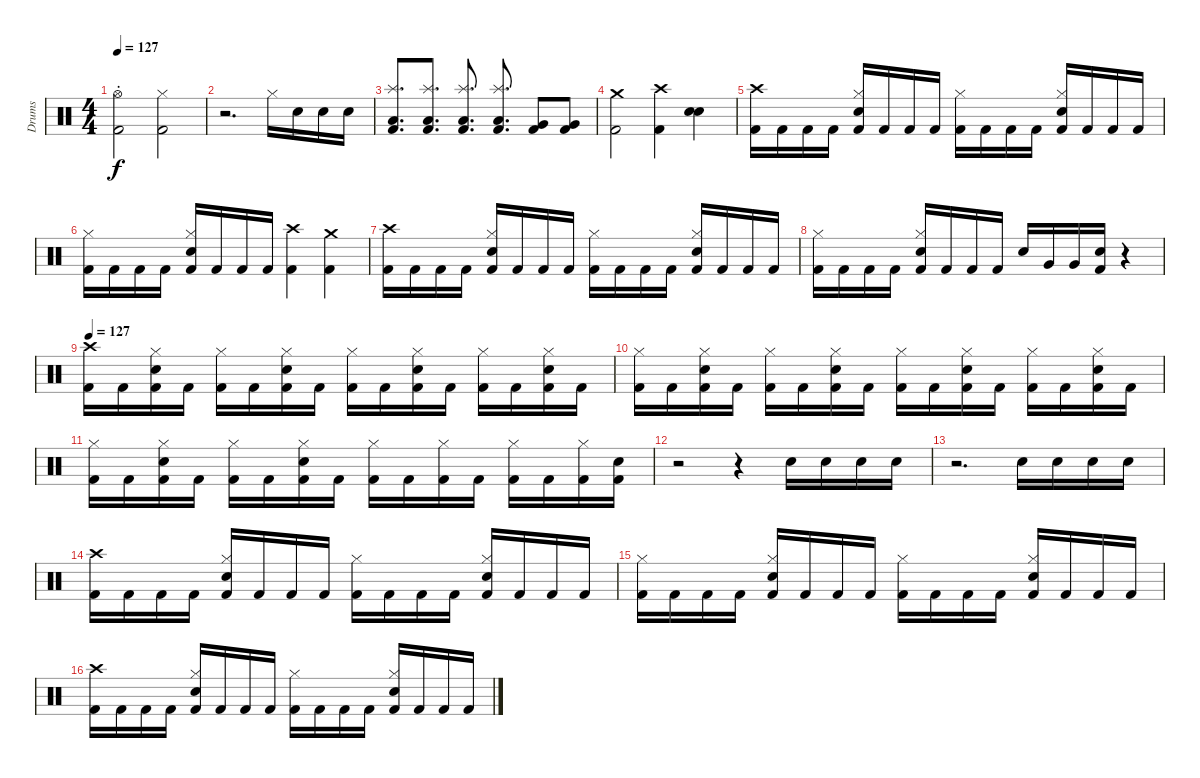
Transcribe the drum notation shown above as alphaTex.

\track ("Drums" "Drums") {instrument percussion}
\staff {score}
\articulation defaults
\ts (4 4)
\tempo 127
\clef neutral
\ks c
("Hi-Hat (open)"{st} "Kick (hit) 2").2{dy f} ("Hi-Hat (closed)" "Kick (hit) 2").2 |
r.2{d} "Hi-Hat (closed)".16 "Snare (hit) 2".16 "Snare (hit) 2".16 "Snare (hit) 2".16 |
("Splash (hit)" "Low Tom (hit)" "Kick (hit) 2").8{d} ("Splash (hit)" "Low Tom (hit)" "Kick (hit) 2").8{d} ("Splash (hit)" "Low Tom (hit)" "Kick (hit) 2").8{d} ("Splash (hit)" "Low Tom (hit)" "Kick (hit) 2").8{d} ("Very Low Tom (hit)" "Kick (hit) 2").8 ("Very Low Tom (hit)" "Kick (hit) 2").8 |
("Crash medium (hit)" "Kick (hit) 2").2 ("Crash high (hit)" "Kick (hit) 2").4 ("Electric Snare (hit)" "Snare (hit) 2").4 |
("Crash high (hit)" "Kick (hit) 2").16 "Kick (hit) 2".16 "Kick (hit) 2".16 "Kick (hit) 2".16 ("Hi-Hat (closed)" "Snare (hit) 2" "Kick (hit) 2").16 "Kick (hit) 2".16 "Kick (hit) 2".16 "Kick (hit) 2".16 ("Hi-Hat (closed)" "Kick (hit) 2").16 "Kick (hit) 2".16 "Kick (hit) 2".16 "Kick (hit) 2".16 ("Hi-Hat (closed)" "Snare (hit) 2" "Kick (hit) 2").16 "Kick (hit) 2".16 "Kick (hit) 2".16 "Kick (hit) 2".16 |
("Hi-Hat (closed)" "Kick (hit) 2").16 "Kick (hit) 2".16 "Kick (hit) 2".16 "Kick (hit) 2".16 ("Hi-Hat (closed)" "Snare (hit) 2" "Kick (hit) 2").16 "Kick (hit) 2".16 "Kick (hit) 2".16 "Kick (hit) 2".16 ("Crash high (hit)" "Kick (hit) 2").4 ("Crash medium (hit)" "Kick (hit) 2").4 |
("Crash high (hit)" "Kick (hit) 2").16 "Kick (hit) 2".16 "Kick (hit) 2".16 "Kick (hit) 2".16 ("Hi-Hat (closed)" "Snare (hit) 2" "Kick (hit) 2").16 "Kick (hit) 2".16 "Kick (hit) 2".16 "Kick (hit) 2".16 ("Hi-Hat (closed)" "Kick (hit) 2").16 "Kick (hit) 2".16 "Kick (hit) 2".16 "Kick (hit) 2".16 ("Hi-Hat (closed)" "Snare (hit) 2" "Kick (hit) 2").16 "Kick (hit) 2".16 "Kick (hit) 2".16 "Kick (hit) 2".16 |
("Hi-Hat (closed)" "Kick (hit) 2").16 "Kick (hit) 2".16 "Kick (hit) 2".16 "Kick (hit) 2".16 ("Hi-Hat (closed)" "Snare (hit) 2" "Kick (hit) 2").16 "Kick (hit) 2".16 "Kick (hit) 2".16 "Kick (hit) 2".16 "Snare (hit) 2".16 "Very Low Tom (hit)".16 "Very Low Tom (hit)".16 ("Snare (hit) 2" "Kick (hit) 2").16 r.4 |
\tempo 127
("Crash high (hit)" "Kick (hit) 2").16 "Kick (hit) 2".16 ("Hi-Hat (closed)" "Snare (hit) 2" "Kick (hit) 2").16 "Kick (hit) 2".16 ("Hi-Hat (closed)" "Kick (hit) 2").16 "Kick (hit) 2".16 ("Hi-Hat (closed)" "Snare (hit) 2" "Kick (hit) 2").16 "Kick (hit) 2".16 ("Hi-Hat (closed)" "Kick (hit) 2").16 "Kick (hit) 2".16 ("Hi-Hat (closed)" "Snare (hit) 2" "Kick (hit) 2").16 "Kick (hit) 2".16 ("Hi-Hat (closed)" "Kick (hit) 2").16 "Kick (hit) 2".16 ("Hi-Hat (closed)" "Snare (hit) 2" "Kick (hit) 2").16 "Kick (hit) 2".16 |
("Hi-Hat (closed)" "Kick (hit) 2").16 "Kick (hit) 2".16 ("Hi-Hat (closed)" "Snare (hit) 2" "Kick (hit) 2").16 "Kick (hit) 2".16 ("Hi-Hat (closed)" "Kick (hit) 2").16 "Kick (hit) 2".16 ("Hi-Hat (closed)" "Snare (hit) 2" "Kick (hit) 2").16 "Kick (hit) 2".16 ("Hi-Hat (closed)" "Kick (hit) 2").16 "Kick (hit) 2".16 ("Hi-Hat (closed)" "Snare (hit) 2" "Kick (hit) 2").16 "Kick (hit) 2".16 ("Hi-Hat (closed)" "Kick (hit) 2").16 "Kick (hit) 2".16 ("Hi-Hat (closed)" "Snare (hit) 2" "Kick (hit) 2").16 "Kick (hit) 2".16 |
("Hi-Hat (closed)" "Kick (hit) 2").16 "Kick (hit) 2".16 ("Hi-Hat (closed)" "Snare (hit) 2" "Kick (hit) 2").16 "Kick (hit) 2".16 ("Hi-Hat (closed)" "Kick (hit) 2").16 "Kick (hit) 2".16 ("Hi-Hat (closed)" "Snare (hit) 2" "Kick (hit) 2").16 "Kick (hit) 2".16 ("Hi-Hat (closed)" "Kick (hit) 2").16 "Kick (hit) 2".16 ("Hi-Hat (closed)" "Kick (hit) 2").16 "Kick (hit) 2".16 ("Hi-Hat (closed)" "Kick (hit) 2").16 "Kick (hit) 2".16 ("Hi-Hat (closed)" "Kick (hit) 2").16 ("Snare (hit) 2" "Kick (hit) 2").16 |
r.2 r.4 "Snare (hit) 2".16 "Snare (hit) 2".16 "Snare (hit) 2".16 "Snare (hit) 2".16 |
r.2{d} "Snare (hit) 2".16 "Snare (hit) 2".16 "Snare (hit) 2".16 "Snare (hit) 2".16 |
("Crash high (hit)" "Kick (hit) 2").16 "Kick (hit) 2".16 "Kick (hit) 2".16 "Kick (hit) 2".16 ("Hi-Hat (closed)" "Snare (hit) 2" "Kick (hit) 2").16 "Kick (hit) 2".16 "Kick (hit) 2".16 "Kick (hit) 2".16 ("Hi-Hat (closed)" "Kick (hit) 2").16 "Kick (hit) 2".16 "Kick (hit) 2".16 "Kick (hit) 2".16 ("Hi-Hat (closed)" "Snare (hit) 2" "Kick (hit) 2").16 "Kick (hit) 2".16 "Kick (hit) 2".16 "Kick (hit) 2".16 |
("Hi-Hat (closed)" "Kick (hit) 2").16 "Kick (hit) 2".16 "Kick (hit) 2".16 "Kick (hit) 2".16 ("Hi-Hat (closed)" "Snare (hit) 2" "Kick (hit) 2").16 "Kick (hit) 2".16 "Kick (hit) 2".16 "Kick (hit) 2".16 ("Hi-Hat (closed)" "Kick (hit) 2").16 "Kick (hit) 2".16 "Kick (hit) 2".16 "Kick (hit) 2".16 ("Hi-Hat (closed)" "Snare (hit) 2" "Kick (hit) 2").16 "Kick (hit) 2".16 "Kick (hit) 2".16 "Kick (hit) 2".16 |
("Crash high (hit)" "Kick (hit) 2").16 "Kick (hit) 2".16 "Kick (hit) 2".16 "Kick (hit) 2".16 ("Hi-Hat (closed)" "Snare (hit) 2" "Kick (hit) 2").16 "Kick (hit) 2".16 "Kick (hit) 2".16 "Kick (hit) 2".16 ("Hi-Hat (closed)" "Kick (hit) 2").16 "Kick (hit) 2".16 "Kick (hit) 2".16 "Kick (hit) 2".16 ("Hi-Hat (closed)" "Snare (hit) 2" "Kick (hit) 2").16 "Kick (hit) 2".16 "Kick (hit) 2".16 "Kick (hit) 2".16
